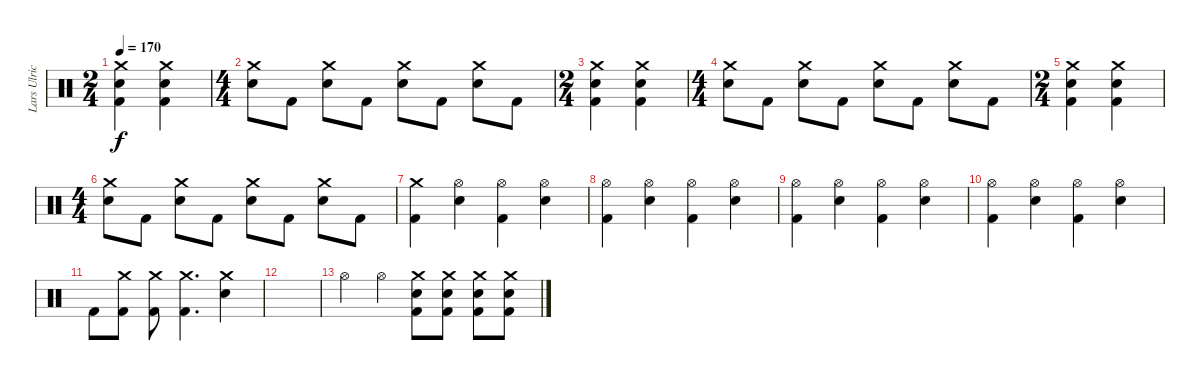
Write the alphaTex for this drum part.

\track ("Lars Ulrich" "Lars Ulric") {instrument percussion}
\staff {score}
\articulation defaults
\ts (2 4)
\tempo 170
\clef neutral
\ks c
("Crash medium (hit)" "Electric Snare (hit)" "Kick (hit) 2").4{dy f} ("Crash medium (hit)" "Electric Snare (hit)" "Kick (hit) 2").4 |
\ts (4 4)
("Crash medium (hit)" "Electric Snare (hit)").8 "Kick (hit) 2".8 ("Crash medium (hit)" "Electric Snare (hit)").8 "Kick (hit) 2".8 ("Crash medium (hit)" "Electric Snare (hit)").8 "Kick (hit) 2".8 ("Crash medium (hit)" "Electric Snare (hit)").8 "Kick (hit) 2".8 |
\ts (2 4)
("Crash medium (hit)" "Electric Snare (hit)" "Kick (hit) 2").4 ("Crash medium (hit)" "Electric Snare (hit)" "Kick (hit) 2").4 |
\ts (4 4)
("Crash medium (hit)" "Electric Snare (hit)").8 "Kick (hit) 2".8 ("Crash medium (hit)" "Electric Snare (hit)").8 "Kick (hit) 2".8 ("Crash medium (hit)" "Electric Snare (hit)").8 "Kick (hit) 2".8 ("Crash medium (hit)" "Electric Snare (hit)").8 "Kick (hit) 2".8 |
\ts (2 4)
("Crash medium (hit)" "Electric Snare (hit)" "Kick (hit) 2").4 ("Crash medium (hit)" "Electric Snare (hit)" "Kick (hit) 2").4 |
\ts (4 4)
("Crash medium (hit)" "Electric Snare (hit)").8 "Kick (hit) 2".8 ("Crash medium (hit)" "Electric Snare (hit)").8 "Kick (hit) 2".8 ("Crash medium (hit)" "Electric Snare (hit)").8 "Kick (hit) 2".8 ("Crash medium (hit)" "Electric Snare (hit)").8 "Kick (hit) 2".8 |
("Crash medium (hit)" "Kick (hit) 2").4 ("Hi-Hat (open)" "Electric Snare (hit)").4 ("Hi-Hat (open)" "Kick (hit) 2").4 ("Hi-Hat (open)" "Electric Snare (hit)").4 |
("Hi-Hat (open)" "Kick (hit) 2").4 ("Hi-Hat (open)" "Electric Snare (hit)").4 ("Hi-Hat (open)" "Kick (hit) 2").4 ("Hi-Hat (open)" "Electric Snare (hit)").4 |
("Hi-Hat (open)" "Kick (hit) 2").4 ("Hi-Hat (open)" "Electric Snare (hit)").4 ("Hi-Hat (open)" "Kick (hit) 2").4 ("Hi-Hat (open)" "Electric Snare (hit)").4 |
("Hi-Hat (open)" "Kick (hit) 2").4 ("Hi-Hat (open)" "Electric Snare (hit)").4 ("Hi-Hat (open)" "Kick (hit) 2").4 ("Hi-Hat (open)" "Electric Snare (hit)").4 |
"Kick (hit) 2".8 ("Crash medium (hit)" "Kick (hit) 2").8 ("Crash medium (hit)" "Kick (hit) 2").8 ("Crash medium (hit)" "Kick (hit) 2").4{d} ("Crash medium (hit)" "Electric Snare (hit)").4 |
|
"Hi-Hat (open)".4 "Hi-Hat (open)".4 ("Crash medium (hit)" "Electric Snare (hit)" "Kick (hit) 2").8 ("Crash medium (hit)" "Electric Snare (hit)" "Kick (hit) 2").8 ("Crash medium (hit)" "Electric Snare (hit)" "Kick (hit) 2").8 ("Crash medium (hit)" "Electric Snare (hit)" "Kick (hit) 2").8
